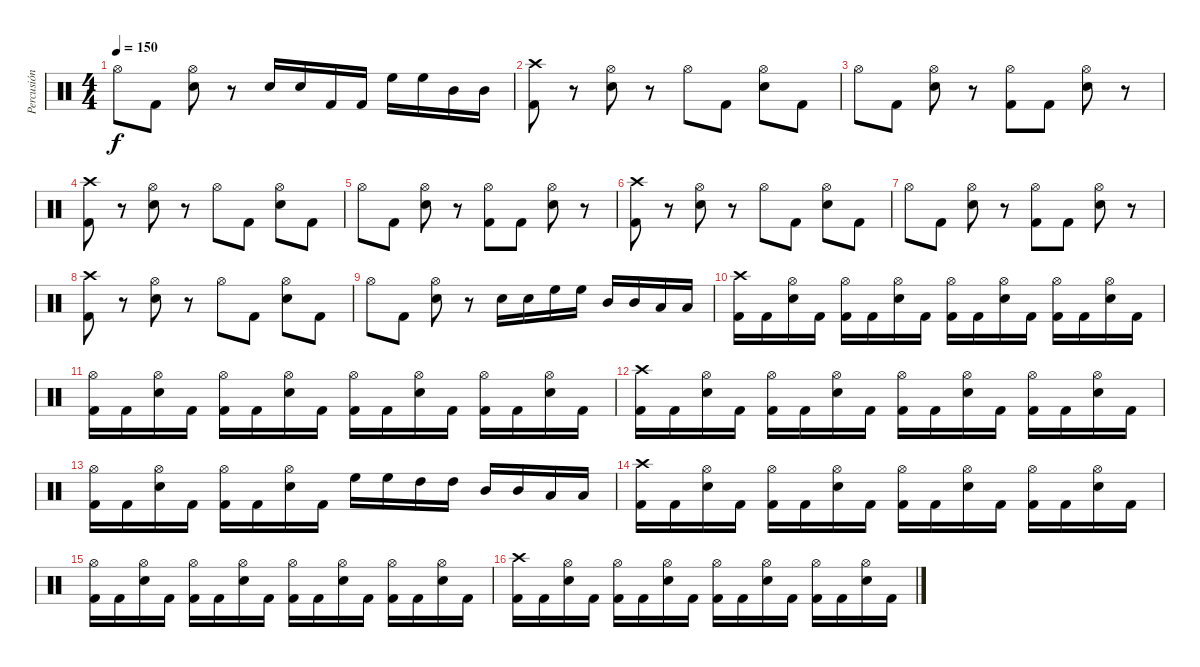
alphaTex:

\track ("Percusión" "Percusión") {instrument percussion}
\staff {score}
\articulation defaults
\ts (4 4)
\tempo 150
\clef neutral
\ks c "Hi-Hat (open)".8{dy f} "Kick (hit) 2".8
("Hi-Hat (open)" "Electric Snare (hit)").8 r.8 "Electric Snare (hit)".16 "Electric Snare (hit)".16 "Kick (hit) 2".16 "Kick (hit) 2".16 "High Floor Tom (hit)".16 "High Floor Tom (hit)".16 "Mid Tom (hit)".16 "Mid Tom (hit)".16 |
("Crash high (hit)" "Kick (hit) 2").8 r.8 ("Hi-Hat (open)" "Electric Snare (hit)").8 r.8 "Hi-Hat (open)".8 "Kick (hit) 2".8 ("Hi-Hat (open)" "Electric Snare (hit)").8 "Kick (hit) 2".8 |
"Hi-Hat (open)".8 "Kick (hit) 2".8 ("Hi-Hat (open)" "Electric Snare (hit)").8 r.8 ("Hi-Hat (open)" "Kick (hit) 2").8 "Kick (hit) 2".8 ("Hi-Hat (open)" "Electric Snare (hit)").8 r.8 |
("Crash high (hit)" "Kick (hit) 2").8 r.8 ("Hi-Hat (open)" "Electric Snare (hit)").8 r.8 "Hi-Hat (open)".8 "Kick (hit) 2".8 ("Hi-Hat (open)" "Electric Snare (hit)").8 "Kick (hit) 2".8 |
"Hi-Hat (open)".8 "Kick (hit) 2".8 ("Hi-Hat (open)" "Electric Snare (hit)").8 r.8 ("Hi-Hat (open)" "Kick (hit) 2").8 "Kick (hit) 2".8 ("Hi-Hat (open)" "Electric Snare (hit)").8 r.8 |
("Crash high (hit)" "Kick (hit) 2").8 r.8 ("Hi-Hat (open)" "Electric Snare (hit)").8 r.8 "Hi-Hat (open)".8 "Kick (hit) 2".8 ("Hi-Hat (open)" "Electric Snare (hit)").8 "Kick (hit) 2".8 |
"Hi-Hat (open)".8 "Kick (hit) 2".8 ("Hi-Hat (open)" "Electric Snare (hit)").8 r.8 ("Hi-Hat (open)" "Kick (hit) 2").8 "Kick (hit) 2".8 ("Hi-Hat (open)" "Electric Snare (hit)").8 r.8 |
("Crash high (hit)" "Kick (hit) 2").8 r.8 ("Hi-Hat (open)" "Electric Snare (hit)").8 r.8 "Hi-Hat (open)".8 "Kick (hit) 2".8 ("Hi-Hat (open)" "Electric Snare (hit)").8 "Kick (hit) 2".8 |
"Hi-Hat (open)".8 "Kick (hit) 2".8 ("Hi-Hat (open)" "Electric Snare (hit)").8 r.8 "Electric Snare (hit)".16 "Electric Snare (hit)".16 "High Floor Tom (hit)".16 "High Floor Tom (hit)".16 "Mid Tom (hit)".16 "Mid Tom (hit)".16 "Low Tom (hit)".16 "Low Tom (hit)".16 |
("Crash high (hit)" "Kick (hit) 2").16 "Kick (hit) 2".16 ("Hi-Hat (open)" "Electric Snare (hit)").16 "Kick (hit) 2".16 ("Hi-Hat (open)" "Kick (hit) 2").16 "Kick (hit) 2".16 ("Hi-Hat (open)" "Electric Snare (hit)").16 "Kick (hit) 2".16 ("Hi-Hat (open)" "Kick (hit) 2").16 "Kick (hit) 2".16 ("Hi-Hat (open)" "Electric Snare (hit)").16 "Kick (hit) 2".16 ("Hi-Hat (open)" "Kick (hit) 2").16 "Kick (hit) 2".16 ("Hi-Hat (open)" "Electric Snare (hit)").16 "Kick (hit) 2".16 |
("Hi-Hat (open)" "Kick (hit) 2").16 "Kick (hit) 2".16 ("Hi-Hat (open)" "Electric Snare (hit)").16 "Kick (hit) 2".16 ("Hi-Hat (open)" "Kick (hit) 2").16 "Kick (hit) 2".16 ("Hi-Hat (open)" "Electric Snare (hit)").16 "Kick (hit) 2".16 ("Hi-Hat (open)" "Kick (hit) 2").16 "Kick (hit) 2".16 ("Hi-Hat (open)" "Electric Snare (hit)").16 "Kick (hit) 2".16 ("Hi-Hat (open)" "Kick (hit) 2").16 "Kick (hit) 2".16 ("Hi-Hat (open)" "Electric Snare (hit)").16 "Kick (hit) 2".16 |
("Crash high (hit)" "Kick (hit) 2").16 "Kick (hit) 2".16 ("Hi-Hat (open)" "Electric Snare (hit)").16 "Kick (hit) 2".16 ("Hi-Hat (open)" "Kick (hit) 2").16 "Kick (hit) 2".16 ("Hi-Hat (open)" "Electric Snare (hit)").16 "Kick (hit) 2".16 ("Hi-Hat (open)" "Kick (hit) 2").16 "Kick (hit) 2".16 ("Hi-Hat (open)" "Electric Snare (hit)").16 "Kick (hit) 2".16 ("Hi-Hat (open)" "Kick (hit) 2").16 "Kick (hit) 2".16 ("Hi-Hat (open)" "Electric Snare (hit)").16 "Kick (hit) 2".16 |
("Hi-Hat (open)" "Kick (hit) 2").16 "Kick (hit) 2".16 ("Hi-Hat (open)" "Electric Snare (hit)").16 "Kick (hit) 2".16 ("Hi-Hat (open)" "Kick (hit) 2").16 "Kick (hit) 2".16 ("Hi-Hat (open)" "Electric Snare (hit)").16 "Kick (hit) 2".16 "High Floor Tom (hit)".16 "High Floor Tom (hit)".16 "High Tom (hit)".16 "High Tom (hit)".16 "Mid Tom (hit)".16 "Mid Tom (hit)".16 "Low Tom (hit)".16 "Low Tom (hit)".16 |
("Crash high (hit)" "Kick (hit) 2").16 "Kick (hit) 2".16 ("Hi-Hat (open)" "Electric Snare (hit)").16 "Kick (hit) 2".16 ("Hi-Hat (open)" "Kick (hit) 2").16 "Kick (hit) 2".16 ("Hi-Hat (open)" "Electric Snare (hit)").16 "Kick (hit) 2".16 ("Hi-Hat (open)" "Kick (hit) 2").16 "Kick (hit) 2".16 ("Hi-Hat (open)" "Electric Snare (hit)").16 "Kick (hit) 2".16 ("Hi-Hat (open)" "Kick (hit) 2").16 "Kick (hit) 2".16 ("Hi-Hat (open)" "Electric Snare (hit)").16 "Kick (hit) 2".16 |
("Hi-Hat (open)" "Kick (hit) 2").16 "Kick (hit) 2".16 ("Hi-Hat (open)" "Electric Snare (hit)").16 "Kick (hit) 2".16 ("Hi-Hat (open)" "Kick (hit) 2").16 "Kick (hit) 2".16 ("Hi-Hat (open)" "Electric Snare (hit)").16 "Kick (hit) 2".16 ("Hi-Hat (open)" "Kick (hit) 2").16 "Kick (hit) 2".16 ("Hi-Hat (open)" "Electric Snare (hit)").16 "Kick (hit) 2".16 ("Hi-Hat (open)" "Kick (hit) 2").16 "Kick (hit) 2".16 ("Hi-Hat (open)" "Electric Snare (hit)").16 "Kick (hit) 2".16 |
("Crash high (hit)" "Kick (hit) 2").16 "Kick (hit) 2".16 ("Hi-Hat (open)" "Electric Snare (hit)").16 "Kick (hit) 2".16 ("Hi-Hat (open)" "Kick (hit) 2").16 "Kick (hit) 2".16 ("Hi-Hat (open)" "Electric Snare (hit)").16 "Kick (hit) 2".16 ("Hi-Hat (open)" "Kick (hit) 2").16 "Kick (hit) 2".16 ("Hi-Hat (open)" "Electric Snare (hit)").16 "Kick (hit) 2".16 ("Hi-Hat (open)" "Kick (hit) 2").16 "Kick (hit) 2".16 ("Hi-Hat (open)" "Electric Snare (hit)").16 "Kick (hit) 2".16
